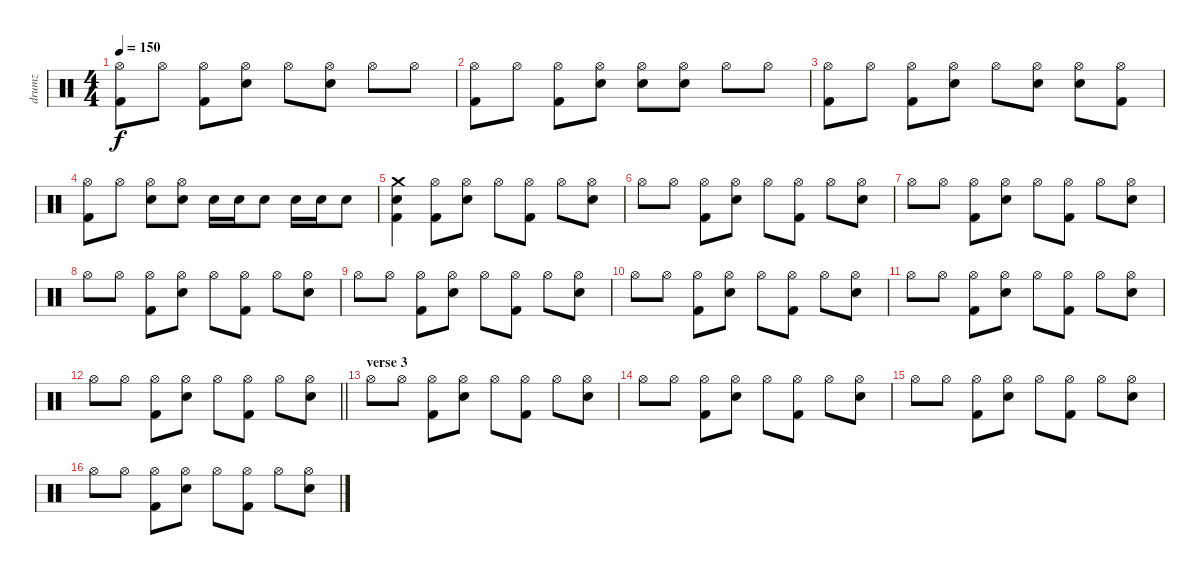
\track ("drumz" "drumz") {instrument percussion}
\staff {score}
\articulation defaults
\ts (4 4)
\tempo 150
\clef neutral
\ks c
("Hi-Hat (open)" "Kick (hit) 2").8{dy f} "Hi-Hat (open)".8 ("Hi-Hat (open)" "Kick (hit) 2").8 ("Hi-Hat (open)" "Electric Snare (hit)").8 "Hi-Hat (open)".8 ("Hi-Hat (open)" "Electric Snare (hit)").8 "Hi-Hat (open)".8 "Hi-Hat (open)".8 |
("Hi-Hat (open)" "Kick (hit) 2").8 "Hi-Hat (open)".8 ("Hi-Hat (open)" "Kick (hit) 2").8 ("Hi-Hat (open)" "Electric Snare (hit)").8 ("Hi-Hat (open)" "Electric Snare (hit)").8 ("Hi-Hat (open)" "Electric Snare (hit)").8 "Hi-Hat (open)".8 "Hi-Hat (open)".8 |
("Hi-Hat (open)" "Kick (hit) 2").8 "Hi-Hat (open)".8 ("Hi-Hat (open)" "Kick (hit) 2").8 ("Hi-Hat (open)" "Electric Snare (hit)").8 "Hi-Hat (open)".8 ("Hi-Hat (open)" "Electric Snare (hit)").8 ("Hi-Hat (open)" "Electric Snare (hit)").8 ("Hi-Hat (open)" "Kick (hit) 2").8 |
("Hi-Hat (open)" "Kick (hit) 2").8 "Hi-Hat (open)".8 ("Hi-Hat (open)" "Electric Snare (hit)").8 ("Hi-Hat (open)" "Electric Snare (hit)").8 "Electric Snare (hit)".16 "Electric Snare (hit)".16 "Electric Snare (hit)".8 "Electric Snare (hit)".16 "Electric Snare (hit)".16 "Electric Snare (hit)".8 |
("Crash medium (hit)" "Electric Snare (hit)" "Kick (hit) 2").4 ("Hi-Hat (open)" "Kick (hit) 2").8 ("Hi-Hat (open)" "Electric Snare (hit)").8 "Hi-Hat (open)".8 ("Hi-Hat (open)" "Kick (hit) 2").8 "Hi-Hat (open)".8 ("Hi-Hat (open)" "Electric Snare (hit)").8 |
"Hi-Hat (open)".8 "Hi-Hat (open)".8 ("Hi-Hat (open)" "Kick (hit) 2").8 ("Hi-Hat (open)" "Electric Snare (hit)").8 "Hi-Hat (open)".8 ("Hi-Hat (open)" "Kick (hit) 2").8 "Hi-Hat (open)".8 ("Hi-Hat (open)" "Electric Snare (hit)").8 |
"Hi-Hat (open)".8 "Hi-Hat (open)".8 ("Hi-Hat (open)" "Kick (hit) 2").8 ("Hi-Hat (open)" "Electric Snare (hit)").8 "Hi-Hat (open)".8 ("Hi-Hat (open)" "Kick (hit) 2").8 "Hi-Hat (open)".8 ("Hi-Hat (open)" "Electric Snare (hit)").8 |
"Hi-Hat (open)".8 "Hi-Hat (open)".8 ("Hi-Hat (open)" "Kick (hit) 2").8 ("Hi-Hat (open)" "Electric Snare (hit)").8 "Hi-Hat (open)".8 ("Hi-Hat (open)" "Kick (hit) 2").8 "Hi-Hat (open)".8 ("Hi-Hat (open)" "Electric Snare (hit)").8 |
"Hi-Hat (open)".8 "Hi-Hat (open)".8 ("Hi-Hat (open)" "Kick (hit) 2").8 ("Hi-Hat (open)" "Electric Snare (hit)").8 "Hi-Hat (open)".8 ("Hi-Hat (open)" "Kick (hit) 2").8 "Hi-Hat (open)".8 ("Hi-Hat (open)" "Electric Snare (hit)").8 |
"Hi-Hat (open)".8 "Hi-Hat (open)".8 ("Hi-Hat (open)" "Kick (hit) 2").8 ("Hi-Hat (open)" "Electric Snare (hit)").8 "Hi-Hat (open)".8 ("Hi-Hat (open)" "Kick (hit) 2").8 "Hi-Hat (open)".8 ("Hi-Hat (open)" "Electric Snare (hit)").8 |
"Hi-Hat (open)".8 "Hi-Hat (open)".8 ("Hi-Hat (open)" "Kick (hit) 2").8 ("Hi-Hat (open)" "Electric Snare (hit)").8 "Hi-Hat (open)".8 ("Hi-Hat (open)" "Kick (hit) 2").8 "Hi-Hat (open)".8 ("Hi-Hat (open)" "Electric Snare (hit)").8 |
\barLineRight lightlight "Hi-Hat (open)".8 "Hi-Hat (open)".8
("Hi-Hat (open)" "Kick (hit) 2").8 ("Hi-Hat (open)" "Electric Snare (hit)").8 "Hi-Hat (open)".8 ("Hi-Hat (open)" "Kick (hit) 2").8 "Hi-Hat (open)".8 ("Hi-Hat (open)" "Electric Snare (hit)").8 |
\section ("" "verse 3")
"Hi-Hat (open)".8 "Hi-Hat (open)".8 ("Hi-Hat (open)" "Kick (hit) 2").8 ("Hi-Hat (open)" "Electric Snare (hit)").8 "Hi-Hat (open)".8 ("Hi-Hat (open)" "Kick (hit) 2").8 "Hi-Hat (open)".8 ("Hi-Hat (open)" "Electric Snare (hit)").8 |
"Hi-Hat (open)".8 "Hi-Hat (open)".8 ("Hi-Hat (open)" "Kick (hit) 2").8 ("Hi-Hat (open)" "Electric Snare (hit)").8 "Hi-Hat (open)".8 ("Hi-Hat (open)" "Kick (hit) 2").8 "Hi-Hat (open)".8 ("Hi-Hat (open)" "Electric Snare (hit)").8 |
"Hi-Hat (open)".8 "Hi-Hat (open)".8 ("Hi-Hat (open)" "Kick (hit) 2").8 ("Hi-Hat (open)" "Electric Snare (hit)").8 "Hi-Hat (open)".8 ("Hi-Hat (open)" "Kick (hit) 2").8 "Hi-Hat (open)".8 ("Hi-Hat (open)" "Electric Snare (hit)").8 |
"Hi-Hat (open)".8 "Hi-Hat (open)".8 ("Hi-Hat (open)" "Kick (hit) 2").8 ("Hi-Hat (open)" "Electric Snare (hit)").8 "Hi-Hat (open)".8 ("Hi-Hat (open)" "Kick (hit) 2").8 "Hi-Hat (open)".8 ("Hi-Hat (open)" "Electric Snare (hit)").8
